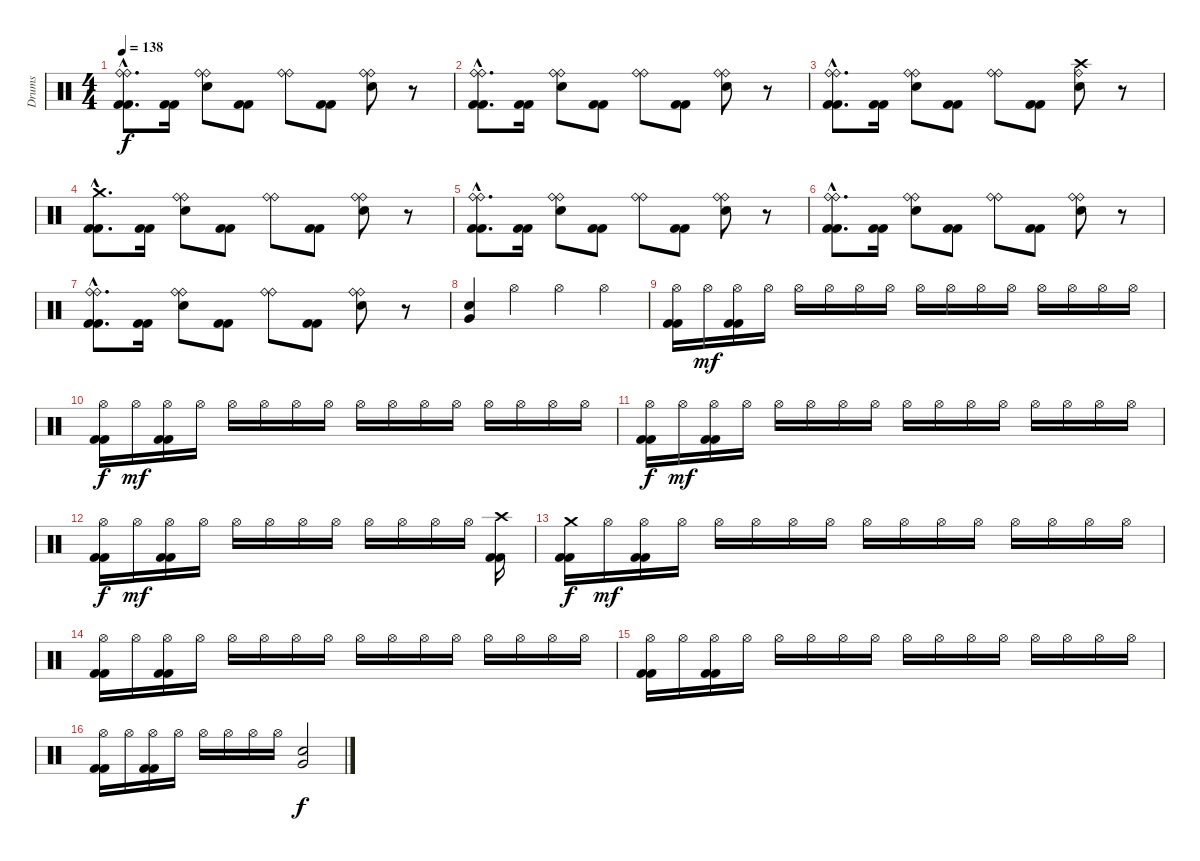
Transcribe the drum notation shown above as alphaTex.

\track ("Drums" "Drums") {instrument percussion}
\staff {score}
\articulation defaults
\ts (4 4)
\tempo 138
\clef neutral
\ks c
("Ride (bell)"{hac} "Ride (bell)"{hac} "Kick (hit) 2"{hac} "Kick (hit) 2"{hac}).8{d dy f} ("Kick (hit) 2" "Kick (hit) 2").16 ("Ride (bell)" "Ride (bell)" "Electric Snare (hit)").8 ("Kick (hit) 2" "Kick (hit) 2").8 ("Ride (bell)" "Ride (bell)").8 ("Kick (hit) 2" "Kick (hit) 2").8 ("Ride (bell)" "Ride (bell)" "Electric Snare (hit)").8 r.8 |
("Ride (bell)"{hac} "Ride (bell)"{hac} "Kick (hit) 2"{hac} "Kick (hit) 2"{hac}).8{d} ("Kick (hit) 2" "Kick (hit) 2").16 ("Ride (bell)" "Ride (bell)" "Electric Snare (hit)").8 ("Kick (hit) 2" "Kick (hit) 2").8 ("Ride (bell)" "Ride (bell)").8 ("Kick (hit) 2" "Kick (hit) 2").8 ("Ride (bell)" "Ride (bell)" "Electric Snare (hit)").8 r.8 |
("Ride (bell)"{hac} "Ride (bell)"{hac} "Kick (hit) 2"{hac} "Kick (hit) 2"{hac}).8{d} ("Kick (hit) 2" "Kick (hit) 2").16 ("Ride (bell)" "Ride (bell)" "Electric Snare (hit)").8 ("Kick (hit) 2" "Kick (hit) 2").8 ("Ride (bell)" "Ride (bell)").8 ("Kick (hit) 2" "Kick (hit) 2").8 ("Crash high (hit)" "Ride (bell)" "Electric Snare (hit)").8 r.8 |
("Crash medium (hit)"{hac} "Kick (hit) 2"{hac} "Kick (hit) 2"{hac}).8{d} ("Kick (hit) 2" "Kick (hit) 2").16 ("Ride (bell)" "Ride (bell)" "Electric Snare (hit)").8 ("Kick (hit) 2" "Kick (hit) 2").8 ("Ride (bell)" "Ride (bell)").8 ("Kick (hit) 2" "Kick (hit) 2").8 ("Ride (bell)" "Ride (bell)" "Electric Snare (hit)").8 r.8 |
("Ride (bell)"{hac} "Ride (bell)"{hac} "Kick (hit) 2"{hac} "Kick (hit) 2"{hac}).8{d} ("Kick (hit) 2" "Kick (hit) 2").16 ("Ride (bell)" "Ride (bell)" "Electric Snare (hit)").8 ("Kick (hit) 2" "Kick (hit) 2").8 ("Ride (bell)" "Ride (bell)").8 ("Kick (hit) 2" "Kick (hit) 2").8 ("Ride (bell)" "Ride (bell)" "Electric Snare (hit)").8 r.8 |
("Ride (bell)"{hac} "Ride (bell)"{hac} "Kick (hit) 2"{hac} "Kick (hit) 2"{hac}).8{d} ("Kick (hit) 2" "Kick (hit) 2").16 ("Ride (bell)" "Ride (bell)" "Electric Snare (hit)").8 ("Kick (hit) 2" "Kick (hit) 2").8 ("Ride (bell)" "Ride (bell)").8 ("Kick (hit) 2" "Kick (hit) 2").8 ("Ride (bell)" "Ride (bell)" "Electric Snare (hit)").8 r.8 |
("Ride (bell)"{hac} "Ride (bell)"{hac} "Kick (hit) 2"{hac} "Kick (hit) 2"{hac}).8{d} ("Kick (hit) 2" "Kick (hit) 2").16 ("Ride (bell)" "Ride (bell)" "Electric Snare (hit)").8 ("Kick (hit) 2" "Kick (hit) 2").8 ("Ride (bell)" "Ride (bell)").8 ("Kick (hit) 2" "Kick (hit) 2").8 ("Ride (bell)" "Ride (bell)" "Electric Snare (hit)").8 r.8 |
("Very Low Tom (hit)" "Electric Snare (hit)").4 "Hi-Hat (open)".4 "Hi-Hat (open)".4 "Hi-Hat (open)".4 |
("Hi-Hat (open)" "Kick (hit) 2" "Kick (hit) 2").16 "Hi-Hat (open)".16{dy mf} ("Hi-Hat (open)" "Kick (hit) 2" "Kick (hit) 2").16 "Hi-Hat (open)".16 "Hi-Hat (open)".16 "Hi-Hat (open)".16 "Hi-Hat (open)".16 "Hi-Hat (open)".16 "Hi-Hat (open)".16 "Hi-Hat (open)".16 "Hi-Hat (open)".16 "Hi-Hat (open)".16 "Hi-Hat (open)".16 "Hi-Hat (open)".16 "Hi-Hat (open)".16 "Hi-Hat (open)".16 |
("Hi-Hat (open)" "Kick (hit) 2" "Kick (hit) 2").16{dy f} "Hi-Hat (open)".16{dy mf} ("Hi-Hat (open)" "Kick (hit) 2" "Kick (hit) 2").16 "Hi-Hat (open)".16 "Hi-Hat (open)".16 "Hi-Hat (open)".16 "Hi-Hat (open)".16 "Hi-Hat (open)".16 "Hi-Hat (open)".16 "Hi-Hat (open)".16 "Hi-Hat (open)".16 "Hi-Hat (open)".16 "Hi-Hat (open)".16 "Hi-Hat (open)".16 "Hi-Hat (open)".16 "Hi-Hat (open)".16 |
("Hi-Hat (open)" "Kick (hit) 2" "Kick (hit) 2").16{dy f} "Hi-Hat (open)".16{dy mf} ("Hi-Hat (open)" "Kick (hit) 2" "Kick (hit) 2").16 "Hi-Hat (open)".16 "Hi-Hat (open)".16 "Hi-Hat (open)".16 "Hi-Hat (open)".16 "Hi-Hat (open)".16 "Hi-Hat (open)".16 "Hi-Hat (open)".16 "Hi-Hat (open)".16 "Hi-Hat (open)".16 "Hi-Hat (open)".16 "Hi-Hat (open)".16 "Hi-Hat (open)".16 "Hi-Hat (open)".16 |
("Hi-Hat (open)" "Kick (hit) 2" "Kick (hit) 2").16{dy f} "Hi-Hat (open)".16{dy mf} ("Hi-Hat (open)" "Kick (hit) 2" "Kick (hit) 2").16 "Hi-Hat (open)".16 "Hi-Hat (open)".16 "Hi-Hat (open)".16 "Hi-Hat (open)".16 "Hi-Hat (open)".16 "Hi-Hat (open)".16 "Hi-Hat (open)".16 "Hi-Hat (open)".16 "Hi-Hat (open)".16 ("Crash high (hit)" "Kick (hit) 2" "Kick (hit) 2").16 |
("Crash medium (hit)" "Kick (hit) 2" "Kick (hit) 2").16{dy f} "Hi-Hat (open)".16{dy mf} ("Hi-Hat (open)" "Kick (hit) 2" "Kick (hit) 2").16 "Hi-Hat (open)".16 "Hi-Hat (open)".16 "Hi-Hat (open)".16 "Hi-Hat (open)".16 "Hi-Hat (open)".16 "Hi-Hat (open)".16 "Hi-Hat (open)".16 "Hi-Hat (open)".16 "Hi-Hat (open)".16 "Hi-Hat (open)".16 "Hi-Hat (open)".16 "Hi-Hat (open)".16 "Hi-Hat (open)".16 |
("Hi-Hat (open)" "Kick (hit) 2" "Kick (hit) 2").16 "Hi-Hat (open)".16 ("Hi-Hat (open)" "Kick (hit) 2" "Kick (hit) 2").16 "Hi-Hat (open)".16 "Hi-Hat (open)".16 "Hi-Hat (open)".16 "Hi-Hat (open)".16 "Hi-Hat (open)".16 "Hi-Hat (open)".16 "Hi-Hat (open)".16 "Hi-Hat (open)".16 "Hi-Hat (open)".16 "Hi-Hat (open)".16 "Hi-Hat (open)".16 "Hi-Hat (open)".16 "Hi-Hat (open)".16 |
("Hi-Hat (open)" "Kick (hit) 2" "Kick (hit) 2").16 "Hi-Hat (open)".16 ("Hi-Hat (open)" "Kick (hit) 2" "Kick (hit) 2").16 "Hi-Hat (open)".16 "Hi-Hat (open)".16 "Hi-Hat (open)".16 "Hi-Hat (open)".16 "Hi-Hat (open)".16 "Hi-Hat (open)".16 "Hi-Hat (open)".16 "Hi-Hat (open)".16 "Hi-Hat (open)".16 "Hi-Hat (open)".16 "Hi-Hat (open)".16 "Hi-Hat (open)".16 "Hi-Hat (open)".16 |
("Hi-Hat (open)" "Kick (hit) 2" "Kick (hit) 2").16 "Hi-Hat (open)".16 ("Hi-Hat (open)" "Kick (hit) 2" "Kick (hit) 2").16 "Hi-Hat (open)".16 "Hi-Hat (open)".16 "Hi-Hat (open)".16 "Hi-Hat (open)".16 "Hi-Hat (open)".16 ("Very Low Tom (hit)" "Electric Snare (hit)").2{dy f}
